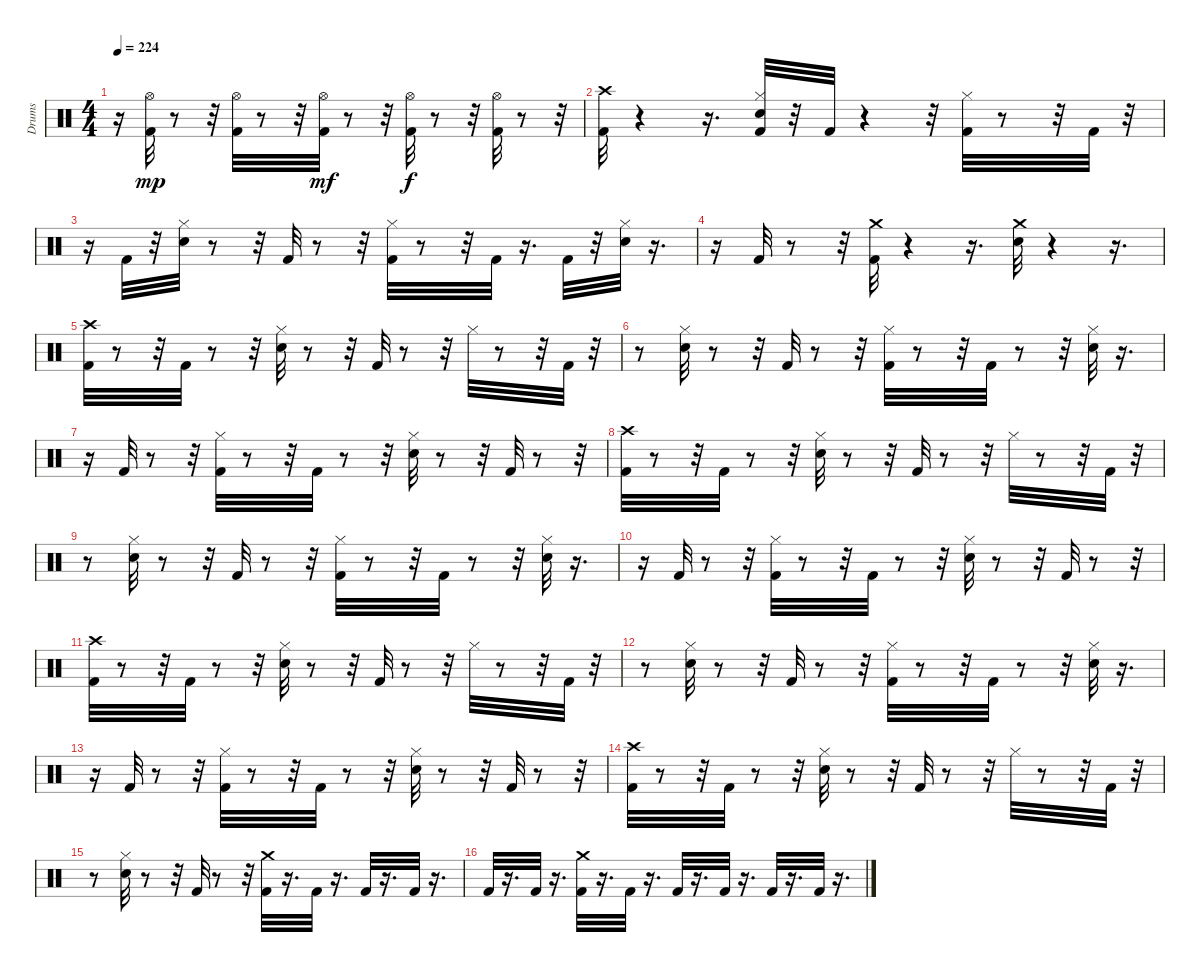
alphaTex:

\track ("Drums" "Drums") {instrument percussion}
\staff {score}
\articulation defaults
\ts (4 4)
\tempo 224
\clef neutral
\ks c
r.16{dy f} ("Hi-Hat (open)" "Kick (hit) 2").32{dy mp} r.8 r.32 ("Hi-Hat (open)" "Kick (hit) 2").32 r.8 r.32 ("Hi-Hat (open)" "Kick (hit) 2").32{dy mf} r.8 r.32 ("Hi-Hat (open)" "Kick (hit) 2").32{dy f} r.8 r.32 ("Hi-Hat (open)" "Kick (hit) 2").32 r.8 r.32 |
("Kick (hit) 2" "Crash high (hit)").32 r.4 r.16{d} ("Kick (hit) 2" "Hi-Hat (closed)" "Snare (hit) 2").32 r.32 "Kick (hit) 2".32 r.4 r.32 ("Hi-Hat (closed)" "Kick (hit) 2").32 r.8 r.32 "Kick (hit) 2".32 r.32 |
r.16 "Kick (hit) 2".32 r.32 ("Hi-Hat (closed)" "Snare (hit) 2").32 r.8 r.32 "Kick (hit) 2".32 r.8 r.32 ("Kick (hit) 2" "Hi-Hat (closed)").32 r.8 r.32 "Kick (hit) 2".32 r.16{d} "Kick (hit) 2".32 r.32 ("Snare (hit) 2" "Hi-Hat (closed)").32 r.16{d} |
r.16 "Kick (hit) 2".32 r.8 r.32 ("Crash medium (hit)" "Kick (hit) 2").32 r.4 r.16{d} ("Crash medium (hit)" "Snare (hit) 2").32 r.4 r.16{d} |
("Kick (hit) 2" "Crash high (hit)").32 r.8 r.32 "Kick (hit) 2".32 r.8 r.32 ("Hi-Hat (closed)" "Snare (hit) 2").32 r.8 r.32 "Kick (hit) 2".32 r.8 r.32 "Hi-Hat (closed)".32 r.8 r.32 "Kick (hit) 2".32 r.32 |
r.8 ("Hi-Hat (closed)" "Snare (hit) 2").32 r.8 r.32 "Kick (hit) 2".32 r.8 r.32 ("Hi-Hat (closed)" "Kick (hit) 2").32 r.8 r.32 "Kick (hit) 2".32 r.8 r.32 ("Hi-Hat (closed)" "Snare (hit) 2").32 r.16{d} |
r.16 "Kick (hit) 2".32 r.8 r.32 ("Hi-Hat (closed)" "Kick (hit) 2").32 r.8 r.32 "Kick (hit) 2".32 r.8 r.32 ("Hi-Hat (closed)" "Snare (hit) 2").32 r.8 r.32 "Kick (hit) 2".32 r.8 r.32 |
("Kick (hit) 2" "Crash high (hit)").32 r.8 r.32 "Kick (hit) 2".32 r.8 r.32 ("Hi-Hat (closed)" "Snare (hit) 2").32 r.8 r.32 "Kick (hit) 2".32 r.8 r.32 "Hi-Hat (closed)".32 r.8 r.32 "Kick (hit) 2".32 r.32 |
r.8 ("Hi-Hat (closed)" "Snare (hit) 2").32 r.8 r.32 "Kick (hit) 2".32 r.8 r.32 ("Hi-Hat (closed)" "Kick (hit) 2").32 r.8 r.32 "Kick (hit) 2".32 r.8 r.32 ("Hi-Hat (closed)" "Snare (hit) 2").32 r.16{d} |
r.16 "Kick (hit) 2".32 r.8 r.32 ("Hi-Hat (closed)" "Kick (hit) 2").32 r.8 r.32 "Kick (hit) 2".32 r.8 r.32 ("Hi-Hat (closed)" "Snare (hit) 2").32 r.8 r.32 "Kick (hit) 2".32 r.8 r.32 |
("Kick (hit) 2" "Crash high (hit)").32 r.8 r.32 "Kick (hit) 2".32 r.8 r.32 ("Hi-Hat (closed)" "Snare (hit) 2").32 r.8 r.32 "Kick (hit) 2".32 r.8 r.32 "Hi-Hat (closed)".32 r.8 r.32 "Kick (hit) 2".32 r.32 |
r.8 ("Hi-Hat (closed)" "Snare (hit) 2").32 r.8 r.32 "Kick (hit) 2".32 r.8 r.32 ("Hi-Hat (closed)" "Kick (hit) 2").32 r.8 r.32 "Kick (hit) 2".32 r.8 r.32 ("Hi-Hat (closed)" "Snare (hit) 2").32 r.16{d} |
r.16 "Kick (hit) 2".32 r.8 r.32 ("Hi-Hat (closed)" "Kick (hit) 2").32 r.8 r.32 "Kick (hit) 2".32 r.8 r.32 ("Hi-Hat (closed)" "Snare (hit) 2").32 r.8 r.32 "Kick (hit) 2".32 r.8 r.32 |
("Kick (hit) 2" "Crash high (hit)").32 r.8 r.32 "Kick (hit) 2".32 r.8 r.32 ("Hi-Hat (closed)" "Snare (hit) 2").32 r.8 r.32 "Kick (hit) 2".32 r.8 r.32 "Hi-Hat (closed)".32 r.8 r.32 "Kick (hit) 2".32 r.32 |
r.8 ("Hi-Hat (closed)" "Snare (hit) 2").32 r.8 r.32 "Kick (hit) 2".32 r.8 r.32 ("Crash medium (hit)" "Kick (hit) 2").32 r.16{d} "Kick (hit) 2".32 r.16{d} "Kick (hit) 2".32 r.16{d} "Kick (hit) 2".32 r.16{d} |
"Kick (hit) 2".32 r.16{d} "Kick (hit) 2".32 r.16{d} ("Crash medium (hit)" "Kick (hit) 2").32 r.16{d} "Kick (hit) 2".32 r.16{d} "Kick (hit) 2".32 r.16{d} "Kick (hit) 2".32 r.16{d} "Kick (hit) 2".32 r.16{d} "Kick (hit) 2".32 r.16{d}
